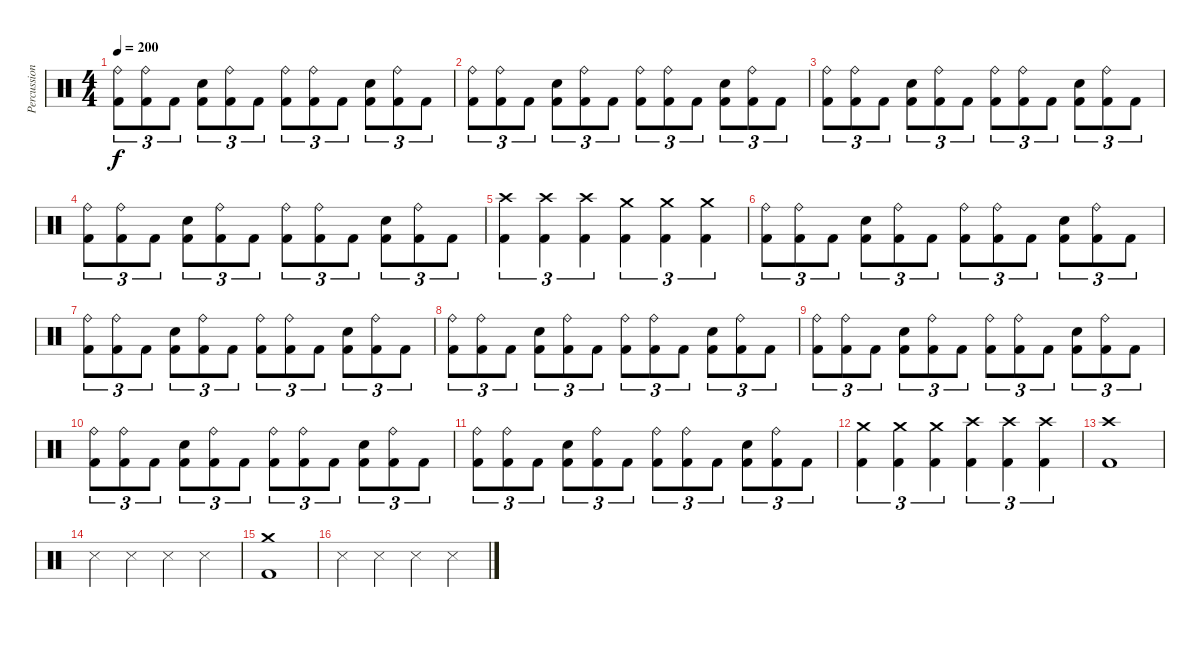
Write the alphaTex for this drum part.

\track ("Percussion" "Percussion") {instrument percussion}
\staff {score}
\articulation defaults
\ts (4 4)
\tempo 200
\clef neutral
\ks c
("Ride (bell)" "Kick (hit) 2").8{tu (3 2) dy f} ("Ride (bell)" "Kick (hit) 2").8{tu (3 2)} "Kick (hit) 2".8{tu (3 2)} ("Electric Snare (hit)" "Kick (hit) 2").8{tu (3 2)} ("Ride (bell)" "Kick (hit) 2").8{tu (3 2)} "Kick (hit) 2".8{tu (3 2)} ("Ride (bell)" "Kick (hit) 2").8{tu (3 2)} ("Ride (bell)" "Kick (hit) 2").8{tu (3 2)} "Kick (hit) 2".8{tu (3 2)} ("Electric Snare (hit)" "Kick (hit) 2").8{tu (3 2)} ("Ride (bell)" "Kick (hit) 2").8{tu (3 2)} "Kick (hit) 2".8{tu (3 2)} |
("Ride (bell)" "Kick (hit) 2").8{tu (3 2)} ("Ride (bell)" "Kick (hit) 2").8{tu (3 2)} "Kick (hit) 2".8{tu (3 2)} ("Electric Snare (hit)" "Kick (hit) 2").8{tu (3 2)} ("Ride (bell)" "Kick (hit) 2").8{tu (3 2)} "Kick (hit) 2".8{tu (3 2)} ("Ride (bell)" "Kick (hit) 2").8{tu (3 2)} ("Ride (bell)" "Kick (hit) 2").8{tu (3 2)} "Kick (hit) 2".8{tu (3 2)} ("Electric Snare (hit)" "Kick (hit) 2").8{tu (3 2)} ("Ride (bell)" "Kick (hit) 2").8{tu (3 2)} "Kick (hit) 2".8{tu (3 2)} |
("Ride (bell)" "Kick (hit) 2").8{tu (3 2)} ("Ride (bell)" "Kick (hit) 2").8{tu (3 2)} "Kick (hit) 2".8{tu (3 2)} ("Electric Snare (hit)" "Kick (hit) 2").8{tu (3 2)} ("Ride (bell)" "Kick (hit) 2").8{tu (3 2)} "Kick (hit) 2".8{tu (3 2)} ("Ride (bell)" "Kick (hit) 2").8{tu (3 2)} ("Ride (bell)" "Kick (hit) 2").8{tu (3 2)} "Kick (hit) 2".8{tu (3 2)} ("Electric Snare (hit)" "Kick (hit) 2").8{tu (3 2)} ("Ride (bell)" "Kick (hit) 2").8{tu (3 2)} "Kick (hit) 2".8{tu (3 2)} |
("Ride (bell)" "Kick (hit) 2").8{tu (3 2)} ("Ride (bell)" "Kick (hit) 2").8{tu (3 2)} "Kick (hit) 2".8{tu (3 2)} ("Electric Snare (hit)" "Kick (hit) 2").8{tu (3 2)} ("Ride (bell)" "Kick (hit) 2").8{tu (3 2)} "Kick (hit) 2".8{tu (3 2)} ("Ride (bell)" "Kick (hit) 2").8{tu (3 2)} ("Ride (bell)" "Kick (hit) 2").8{tu (3 2)} "Kick (hit) 2".8{tu (3 2)} ("Electric Snare (hit)" "Kick (hit) 2").8{tu (3 2)} ("Ride (bell)" "Kick (hit) 2").8{tu (3 2)} "Kick (hit) 2".8{tu (3 2)} |
("Crash high (hit)" "Kick (hit) 2").4{tu (3 2)} ("Crash high (hit)" "Kick (hit) 2").4{tu (3 2)} ("Crash high (hit)" "Kick (hit) 2").4{tu (3 2)} ("Crash medium (hit)" "Kick (hit) 2").4{tu (3 2)} ("Crash medium (hit)" "Kick (hit) 2").4{tu (3 2)} ("Crash medium (hit)" "Kick (hit) 2").4{tu (3 2)} |
("Ride (bell)" "Kick (hit) 2").8{tu (3 2)} ("Ride (bell)" "Kick (hit) 2").8{tu (3 2)} "Kick (hit) 2".8{tu (3 2)} ("Electric Snare (hit)" "Kick (hit) 2").8{tu (3 2)} ("Ride (bell)" "Kick (hit) 2").8{tu (3 2)} "Kick (hit) 2".8{tu (3 2)} ("Ride (bell)" "Kick (hit) 2").8{tu (3 2)} ("Ride (bell)" "Kick (hit) 2").8{tu (3 2)} "Kick (hit) 2".8{tu (3 2)} ("Electric Snare (hit)" "Kick (hit) 2").8{tu (3 2)} ("Ride (bell)" "Kick (hit) 2").8{tu (3 2)} "Kick (hit) 2".8{tu (3 2)} |
("Ride (bell)" "Kick (hit) 2").8{tu (3 2)} ("Ride (bell)" "Kick (hit) 2").8{tu (3 2)} "Kick (hit) 2".8{tu (3 2)} ("Electric Snare (hit)" "Kick (hit) 2").8{tu (3 2)} ("Ride (bell)" "Kick (hit) 2").8{tu (3 2)} "Kick (hit) 2".8{tu (3 2)} ("Ride (bell)" "Kick (hit) 2").8{tu (3 2)} ("Ride (bell)" "Kick (hit) 2").8{tu (3 2)} "Kick (hit) 2".8{tu (3 2)} ("Electric Snare (hit)" "Kick (hit) 2").8{tu (3 2)} ("Ride (bell)" "Kick (hit) 2").8{tu (3 2)} "Kick (hit) 2".8{tu (3 2)} |
("Ride (bell)" "Kick (hit) 2").8{tu (3 2)} ("Ride (bell)" "Kick (hit) 2").8{tu (3 2)} "Kick (hit) 2".8{tu (3 2)} ("Electric Snare (hit)" "Kick (hit) 2").8{tu (3 2)} ("Ride (bell)" "Kick (hit) 2").8{tu (3 2)} "Kick (hit) 2".8{tu (3 2)} ("Ride (bell)" "Kick (hit) 2").8{tu (3 2)} ("Ride (bell)" "Kick (hit) 2").8{tu (3 2)} "Kick (hit) 2".8{tu (3 2)} ("Electric Snare (hit)" "Kick (hit) 2").8{tu (3 2)} ("Ride (bell)" "Kick (hit) 2").8{tu (3 2)} "Kick (hit) 2".8{tu (3 2)} |
("Ride (bell)" "Kick (hit) 2").8{tu (3 2)} ("Ride (bell)" "Kick (hit) 2").8{tu (3 2)} "Kick (hit) 2".8{tu (3 2)} ("Electric Snare (hit)" "Kick (hit) 2").8{tu (3 2)} ("Ride (bell)" "Kick (hit) 2").8{tu (3 2)} "Kick (hit) 2".8{tu (3 2)} ("Ride (bell)" "Kick (hit) 2").8{tu (3 2)} ("Ride (bell)" "Kick (hit) 2").8{tu (3 2)} "Kick (hit) 2".8{tu (3 2)} ("Electric Snare (hit)" "Kick (hit) 2").8{tu (3 2)} ("Ride (bell)" "Kick (hit) 2").8{tu (3 2)} "Kick (hit) 2".8{tu (3 2)} |
("Ride (bell)" "Kick (hit) 2").8{tu (3 2)} ("Ride (bell)" "Kick (hit) 2").8{tu (3 2)} "Kick (hit) 2".8{tu (3 2)} ("Electric Snare (hit)" "Kick (hit) 2").8{tu (3 2)} ("Ride (bell)" "Kick (hit) 2").8{tu (3 2)} "Kick (hit) 2".8{tu (3 2)} ("Ride (bell)" "Kick (hit) 2").8{tu (3 2)} ("Ride (bell)" "Kick (hit) 2").8{tu (3 2)} "Kick (hit) 2".8{tu (3 2)} ("Electric Snare (hit)" "Kick (hit) 2").8{tu (3 2)} ("Ride (bell)" "Kick (hit) 2").8{tu (3 2)} "Kick (hit) 2".8{tu (3 2)} |
("Ride (bell)" "Kick (hit) 2").8{tu (3 2)} ("Ride (bell)" "Kick (hit) 2").8{tu (3 2)} "Kick (hit) 2".8{tu (3 2)} ("Electric Snare (hit)" "Kick (hit) 2").8{tu (3 2)} ("Ride (bell)" "Kick (hit) 2").8{tu (3 2)} "Kick (hit) 2".8{tu (3 2)} ("Ride (bell)" "Kick (hit) 2").8{tu (3 2)} ("Ride (bell)" "Kick (hit) 2").8{tu (3 2)} "Kick (hit) 2".8{tu (3 2)} ("Electric Snare (hit)" "Kick (hit) 2").8{tu (3 2)} ("Ride (bell)" "Kick (hit) 2").8{tu (3 2)} "Kick (hit) 2".8{tu (3 2)} |
("Crash medium (hit)" "Kick (hit) 2").4{tu (3 2)} ("Crash medium (hit)" "Kick (hit) 2").4{tu (3 2)} ("Crash medium (hit)" "Kick (hit) 2").4{tu (3 2)} ("Crash high (hit)" "Kick (hit) 2").4{tu (3 2)} ("Crash high (hit)" "Kick (hit) 2").4{tu (3 2)} ("Crash high (hit)" "Kick (hit) 2").4{tu (3 2)} |
("Crash high (hit)" "Kick (hit) 2").1 |
"Snare (side stick) 3".4 "Snare (side stick) 3".4 "Snare (side stick) 3".4 "Snare (side stick) 3".4 |
("Crash medium (hit)" "Kick (hit) 2").1 |
"Snare (side stick) 3".4 "Snare (side stick) 3".4 "Snare (side stick) 3".4 "Snare (side stick) 3".4
